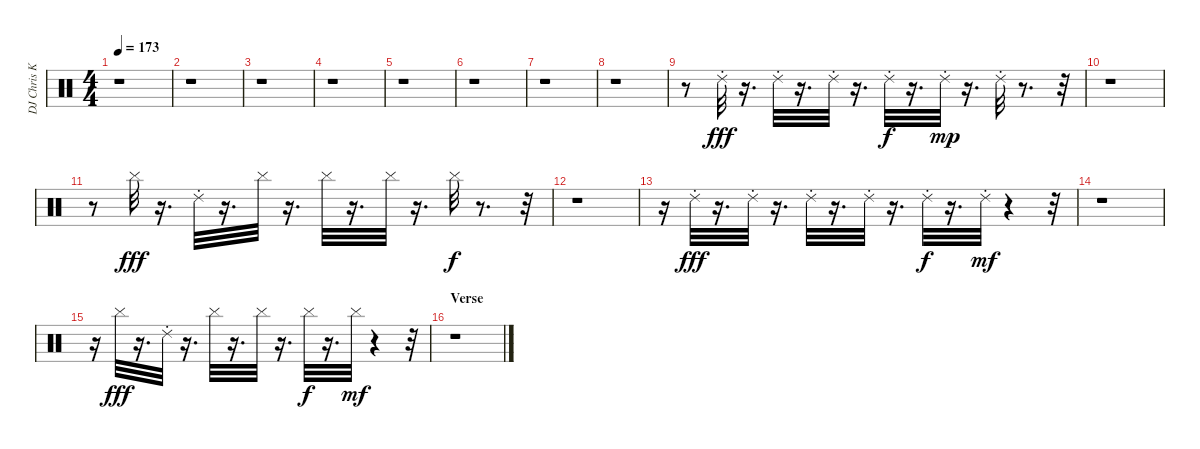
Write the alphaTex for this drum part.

\track ("DJ Chris Kilmore-Turntables" "DJ Chris K") {instrument percussion}
\staff {score}
\articulation defaults
\ts (4 4)
\tempo 173
\clef neutral
\ks c
r.1{dy fff} |
r.1 |
r.1 |
r.1 |
r.1 |
r.1 |
r.1 |
r.1 |
r.8 "Ride (choke) 2".32 r.16{d} "Ride (choke) 2".32 r.16{d} "Ride (choke) 2".32 r.16{d} "Ride (choke) 2".32{dy f} r.16{d} "Ride (choke) 2".32{dy mp} r.16{d} "Ride (choke) 2".32 r.8{d} r.32 |
r.1 |
r.8 "Cymbal (hit)".32{dy fff} r.16{d} "Ride (choke) 2".32 r.16{d} "Cymbal (hit)".32 r.16{d} "Cymbal (hit)".32 r.16{d} "Cymbal (hit)".32 r.16{d} "Cymbal (hit)".32{dy f} r.8{d} r.32 |
r.1 |
r.16 "Ride (choke) 2".32{dy fff} r.16{d} "Ride (choke) 2".32 r.16{d} "Ride (choke) 2".32 r.16{d} "Ride (choke) 2".32 r.16{d} "Ride (choke) 2".32{dy f} r.16{d} "Ride (choke) 2".32{dy mf} r.4 r.32 |
r.1 |
r.16 "Cymbal (hit)".32{dy fff} r.16{d} "Ride (choke) 2".32 r.16{d} "Cymbal (hit)".32 r.16{d} "Cymbal (hit)".32 r.16{d} "Cymbal (hit)".32{dy f} r.16{d} "Cymbal (hit)".32{dy mf} r.4 r.32 |
\section ("" "Verse")
r.1
